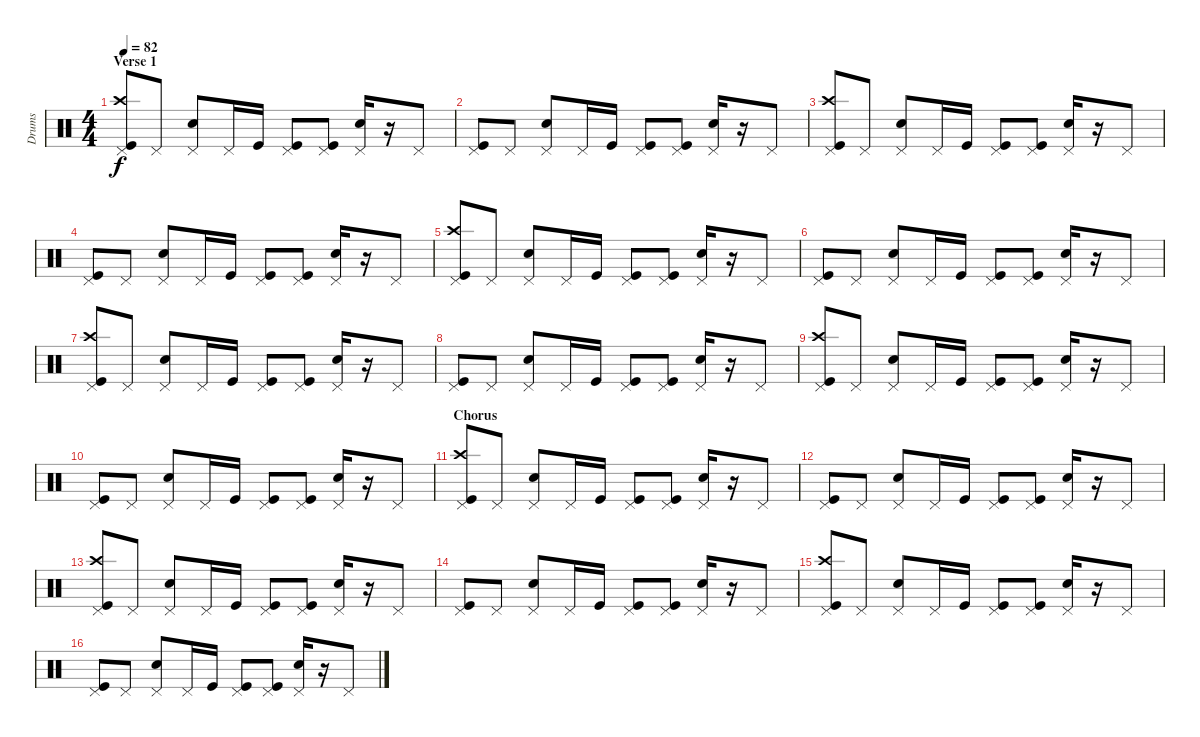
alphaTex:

\track ("Drums" "Drums") {instrument percussion}
\staff {score}
\articulation defaults
\ts (4 4)
\section ("" "Verse 1")
\tempo 82
\clef neutral
\ks c
("Kick (hit)" "Crash high (hit)" "Pedal Hi-Hat (hit)").8{dy f} "Pedal Hi-Hat (hit)".8 ("Electric Snare (hit)" "Pedal Hi-Hat (hit)").8 "Pedal Hi-Hat (hit)".16 "Kick (hit)".16 ("Kick (hit)" "Pedal Hi-Hat (hit)").8 ("Kick (hit)" "Pedal Hi-Hat (hit)").8 ("Electric Snare (hit)" "Pedal Hi-Hat (hit)").16 r.16 "Pedal Hi-Hat (hit)".8 |
("Kick (hit)" "Pedal Hi-Hat (hit)").8 "Pedal Hi-Hat (hit)".8 ("Electric Snare (hit)" "Pedal Hi-Hat (hit)").8 "Pedal Hi-Hat (hit)".16 "Kick (hit)".16 ("Kick (hit)" "Pedal Hi-Hat (hit)").8 ("Kick (hit)" "Pedal Hi-Hat (hit)").8 ("Electric Snare (hit)" "Pedal Hi-Hat (hit)").16 r.16 "Pedal Hi-Hat (hit)".8 |
("Kick (hit)" "Crash high (hit)" "Pedal Hi-Hat (hit)").8 "Pedal Hi-Hat (hit)".8 ("Electric Snare (hit)" "Pedal Hi-Hat (hit)").8 "Pedal Hi-Hat (hit)".16 "Kick (hit)".16 ("Kick (hit)" "Pedal Hi-Hat (hit)").8 ("Kick (hit)" "Pedal Hi-Hat (hit)").8 ("Electric Snare (hit)" "Pedal Hi-Hat (hit)").16 r.16 "Pedal Hi-Hat (hit)".8 |
("Kick (hit)" "Pedal Hi-Hat (hit)").8 "Pedal Hi-Hat (hit)".8 ("Electric Snare (hit)" "Pedal Hi-Hat (hit)").8 "Pedal Hi-Hat (hit)".16 "Kick (hit)".16 ("Kick (hit)" "Pedal Hi-Hat (hit)").8 ("Kick (hit)" "Pedal Hi-Hat (hit)").8 ("Electric Snare (hit)" "Pedal Hi-Hat (hit)").16 r.16 "Pedal Hi-Hat (hit)".8 |
("Kick (hit)" "Crash high (hit)" "Pedal Hi-Hat (hit)").8 "Pedal Hi-Hat (hit)".8 ("Electric Snare (hit)" "Pedal Hi-Hat (hit)").8 "Pedal Hi-Hat (hit)".16 "Kick (hit)".16 ("Kick (hit)" "Pedal Hi-Hat (hit)").8 ("Kick (hit)" "Pedal Hi-Hat (hit)").8 ("Electric Snare (hit)" "Pedal Hi-Hat (hit)").16 r.16 "Pedal Hi-Hat (hit)".8 |
("Kick (hit)" "Pedal Hi-Hat (hit)").8 "Pedal Hi-Hat (hit)".8 ("Electric Snare (hit)" "Pedal Hi-Hat (hit)").8 "Pedal Hi-Hat (hit)".16 "Kick (hit)".16 ("Kick (hit)" "Pedal Hi-Hat (hit)").8 ("Kick (hit)" "Pedal Hi-Hat (hit)").8 ("Electric Snare (hit)" "Pedal Hi-Hat (hit)").16 r.16 "Pedal Hi-Hat (hit)".8 |
("Kick (hit)" "Crash high (hit)" "Pedal Hi-Hat (hit)").8 "Pedal Hi-Hat (hit)".8 ("Electric Snare (hit)" "Pedal Hi-Hat (hit)").8 "Pedal Hi-Hat (hit)".16 "Kick (hit)".16 ("Kick (hit)" "Pedal Hi-Hat (hit)").8 ("Kick (hit)" "Pedal Hi-Hat (hit)").8 ("Electric Snare (hit)" "Pedal Hi-Hat (hit)").16 r.16 "Pedal Hi-Hat (hit)".8 |
("Kick (hit)" "Pedal Hi-Hat (hit)").8 "Pedal Hi-Hat (hit)".8 ("Electric Snare (hit)" "Pedal Hi-Hat (hit)").8 "Pedal Hi-Hat (hit)".16 "Kick (hit)".16 ("Kick (hit)" "Pedal Hi-Hat (hit)").8 ("Kick (hit)" "Pedal Hi-Hat (hit)").8 ("Electric Snare (hit)" "Pedal Hi-Hat (hit)").16 r.16 "Pedal Hi-Hat (hit)".8 |
("Kick (hit)" "Crash high (hit)" "Pedal Hi-Hat (hit)").8 "Pedal Hi-Hat (hit)".8 ("Electric Snare (hit)" "Pedal Hi-Hat (hit)").8 "Pedal Hi-Hat (hit)".16 "Kick (hit)".16 ("Kick (hit)" "Pedal Hi-Hat (hit)").8 ("Kick (hit)" "Pedal Hi-Hat (hit)").8 ("Electric Snare (hit)" "Pedal Hi-Hat (hit)").16 r.16 "Pedal Hi-Hat (hit)".8 |
("Kick (hit)" "Pedal Hi-Hat (hit)").8 "Pedal Hi-Hat (hit)".8 ("Electric Snare (hit)" "Pedal Hi-Hat (hit)").8 "Pedal Hi-Hat (hit)".16 "Kick (hit)".16 ("Kick (hit)" "Pedal Hi-Hat (hit)").8 ("Kick (hit)" "Pedal Hi-Hat (hit)").8 ("Electric Snare (hit)" "Pedal Hi-Hat (hit)").16 r.16 "Pedal Hi-Hat (hit)".8 |
\section ("" "Chorus")
("Kick (hit)" "Crash high (hit)" "Pedal Hi-Hat (hit)").8 "Pedal Hi-Hat (hit)".8 ("Electric Snare (hit)" "Pedal Hi-Hat (hit)").8 "Pedal Hi-Hat (hit)".16 "Kick (hit)".16 ("Kick (hit)" "Pedal Hi-Hat (hit)").8 ("Kick (hit)" "Pedal Hi-Hat (hit)").8 ("Electric Snare (hit)" "Pedal Hi-Hat (hit)").16 r.16 "Pedal Hi-Hat (hit)".8 |
("Kick (hit)" "Pedal Hi-Hat (hit)").8 "Pedal Hi-Hat (hit)".8 ("Electric Snare (hit)" "Pedal Hi-Hat (hit)").8 "Pedal Hi-Hat (hit)".16 "Kick (hit)".16 ("Kick (hit)" "Pedal Hi-Hat (hit)").8 ("Kick (hit)" "Pedal Hi-Hat (hit)").8 ("Electric Snare (hit)" "Pedal Hi-Hat (hit)").16 r.16 "Pedal Hi-Hat (hit)".8 |
("Kick (hit)" "Crash high (hit)" "Pedal Hi-Hat (hit)").8 "Pedal Hi-Hat (hit)".8 ("Electric Snare (hit)" "Pedal Hi-Hat (hit)").8 "Pedal Hi-Hat (hit)".16 "Kick (hit)".16 ("Kick (hit)" "Pedal Hi-Hat (hit)").8 ("Kick (hit)" "Pedal Hi-Hat (hit)").8 ("Electric Snare (hit)" "Pedal Hi-Hat (hit)").16 r.16 "Pedal Hi-Hat (hit)".8 |
("Kick (hit)" "Pedal Hi-Hat (hit)").8 "Pedal Hi-Hat (hit)".8 ("Electric Snare (hit)" "Pedal Hi-Hat (hit)").8 "Pedal Hi-Hat (hit)".16 "Kick (hit)".16 ("Kick (hit)" "Pedal Hi-Hat (hit)").8 ("Kick (hit)" "Pedal Hi-Hat (hit)").8 ("Electric Snare (hit)" "Pedal Hi-Hat (hit)").16 r.16 "Pedal Hi-Hat (hit)".8 |
("Kick (hit)" "Crash high (hit)" "Pedal Hi-Hat (hit)").8 "Pedal Hi-Hat (hit)".8 ("Electric Snare (hit)" "Pedal Hi-Hat (hit)").8 "Pedal Hi-Hat (hit)".16 "Kick (hit)".16 ("Kick (hit)" "Pedal Hi-Hat (hit)").8 ("Kick (hit)" "Pedal Hi-Hat (hit)").8 ("Electric Snare (hit)" "Pedal Hi-Hat (hit)").16 r.16 "Pedal Hi-Hat (hit)".8 |
("Kick (hit)" "Pedal Hi-Hat (hit)").8 "Pedal Hi-Hat (hit)".8 ("Electric Snare (hit)" "Pedal Hi-Hat (hit)").8 "Pedal Hi-Hat (hit)".16 "Kick (hit)".16 ("Kick (hit)" "Pedal Hi-Hat (hit)").8 ("Kick (hit)" "Pedal Hi-Hat (hit)").8 ("Electric Snare (hit)" "Pedal Hi-Hat (hit)").16 r.16 "Pedal Hi-Hat (hit)".8
